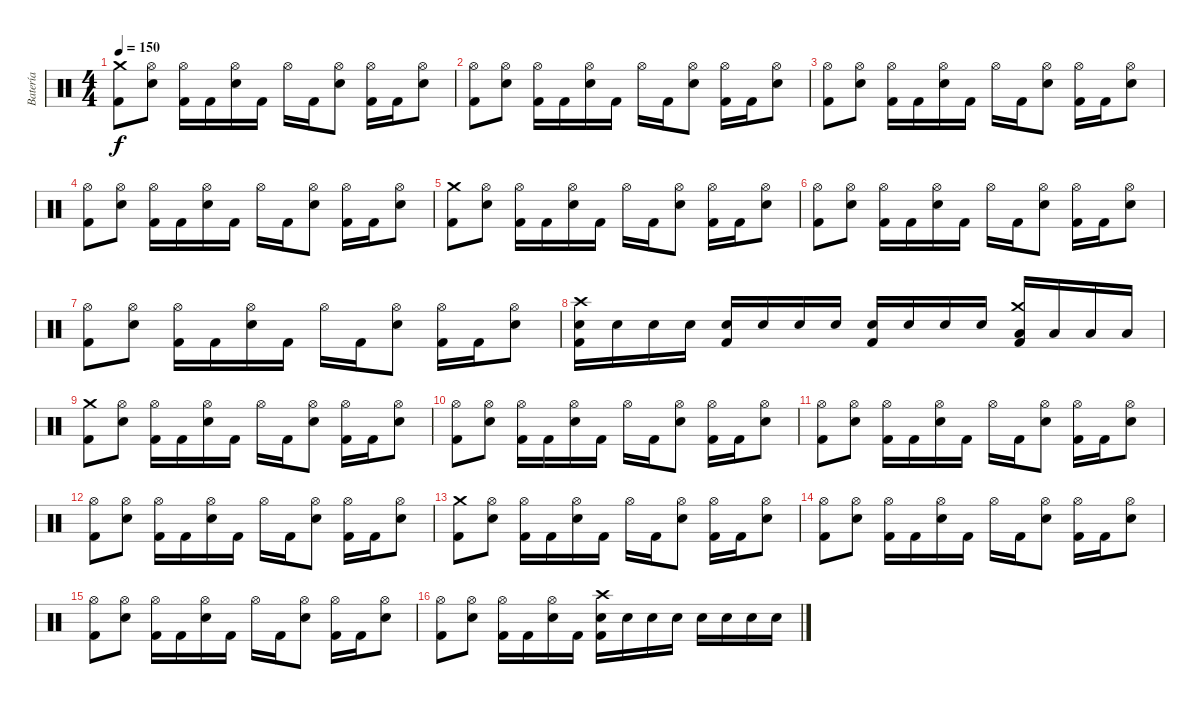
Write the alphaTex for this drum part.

\track ("Batería" "Batería") {instrument percussion}
\staff {score}
\articulation defaults
\ts (4 4)
\tempo 150
\clef neutral
\ks c
("Kick (hit) 2" "Crash medium (hit)").8{dy f} ("Snare (hit) 2" "Hi-Hat (open)").8 ("Kick (hit) 2" "Hi-Hat (open)").16 "Kick (hit) 2".16 ("Snare (hit) 2" "Hi-Hat (open)").16 "Kick (hit) 2".16 "Hi-Hat (open)".16 "Kick (hit) 2".16 ("Snare (hit) 2" "Hi-Hat (open)").8 ("Kick (hit) 2" "Hi-Hat (open)").16 "Kick (hit) 2".16 ("Snare (hit) 2" "Hi-Hat (open)").8 |
("Kick (hit) 2" "Hi-Hat (open)").8 ("Snare (hit) 2" "Hi-Hat (open)").8 ("Kick (hit) 2" "Hi-Hat (open)").16 "Kick (hit) 2".16 ("Snare (hit) 2" "Hi-Hat (open)").16 "Kick (hit) 2".16 "Hi-Hat (open)".16 "Kick (hit) 2".16 ("Snare (hit) 2" "Hi-Hat (open)").8 ("Kick (hit) 2" "Hi-Hat (open)").16 "Kick (hit) 2".16 ("Snare (hit) 2" "Hi-Hat (open)").8 |
("Kick (hit) 2" "Hi-Hat (open)").8 ("Snare (hit) 2" "Hi-Hat (open)").8 ("Kick (hit) 2" "Hi-Hat (open)").16 "Kick (hit) 2".16 ("Snare (hit) 2" "Hi-Hat (open)").16 "Kick (hit) 2".16 "Hi-Hat (open)".16 "Kick (hit) 2".16 ("Snare (hit) 2" "Hi-Hat (open)").8 ("Kick (hit) 2" "Hi-Hat (open)").16 "Kick (hit) 2".16 ("Snare (hit) 2" "Hi-Hat (open)").8 |
("Kick (hit) 2" "Hi-Hat (open)").8 ("Snare (hit) 2" "Hi-Hat (open)").8 ("Kick (hit) 2" "Hi-Hat (open)").16 "Kick (hit) 2".16 ("Snare (hit) 2" "Hi-Hat (open)").16 "Kick (hit) 2".16 "Hi-Hat (open)".16 "Kick (hit) 2".16 ("Snare (hit) 2" "Hi-Hat (open)").8 ("Kick (hit) 2" "Hi-Hat (open)").16 "Kick (hit) 2".16 ("Snare (hit) 2" "Hi-Hat (open)").8 |
("Kick (hit) 2" "Crash medium (hit)").8 ("Snare (hit) 2" "Hi-Hat (open)").8 ("Kick (hit) 2" "Hi-Hat (open)").16 "Kick (hit) 2".16 ("Snare (hit) 2" "Hi-Hat (open)").16 "Kick (hit) 2".16 "Hi-Hat (open)".16 "Kick (hit) 2".16 ("Snare (hit) 2" "Hi-Hat (open)").8 ("Kick (hit) 2" "Hi-Hat (open)").16 "Kick (hit) 2".16 ("Snare (hit) 2" "Hi-Hat (open)").8 |
("Kick (hit) 2" "Hi-Hat (open)").8 ("Snare (hit) 2" "Hi-Hat (open)").8 ("Kick (hit) 2" "Hi-Hat (open)").16 "Kick (hit) 2".16 ("Snare (hit) 2" "Hi-Hat (open)").16 "Kick (hit) 2".16 "Hi-Hat (open)".16 "Kick (hit) 2".16 ("Snare (hit) 2" "Hi-Hat (open)").8 ("Kick (hit) 2" "Hi-Hat (open)").16 "Kick (hit) 2".16 ("Snare (hit) 2" "Hi-Hat (open)").8 |
("Kick (hit) 2" "Hi-Hat (open)").8 ("Snare (hit) 2" "Hi-Hat (open)").8 ("Kick (hit) 2" "Hi-Hat (open)").16 "Kick (hit) 2".16 ("Snare (hit) 2" "Hi-Hat (open)").16 "Kick (hit) 2".16 "Hi-Hat (open)".16 "Kick (hit) 2".16 ("Snare (hit) 2" "Hi-Hat (open)").8 ("Kick (hit) 2" "Hi-Hat (open)").16 "Kick (hit) 2".16 ("Snare (hit) 2" "Hi-Hat (open)").8 |
("Kick (hit) 2" "Snare (hit) 2" "Crash high (hit)").16 "Snare (hit) 2".16 "Snare (hit) 2".16 "Snare (hit) 2".16 ("Kick (hit) 2" "Snare (hit) 2").16 "Snare (hit) 2".16 "Snare (hit) 2".16 "Snare (hit) 2".16 ("Kick (hit) 2" "Snare (hit) 2").16 "Snare (hit) 2".16 "Snare (hit) 2".16 "Snare (hit) 2".16 ("Kick (hit) 2" "Low Tom (hit)" "Crash medium (hit)").16 "Low Tom (hit)".16 "Low Tom (hit)".16 "Low Tom (hit)".16 |
("Kick (hit) 2" "Crash medium (hit)").8 ("Snare (hit) 2" "Hi-Hat (open)").8 ("Kick (hit) 2" "Hi-Hat (open)").16 "Kick (hit) 2".16 ("Snare (hit) 2" "Hi-Hat (open)").16 "Kick (hit) 2".16 "Hi-Hat (open)".16 "Kick (hit) 2".16 ("Snare (hit) 2" "Hi-Hat (open)").8 ("Kick (hit) 2" "Hi-Hat (open)").16 "Kick (hit) 2".16 ("Snare (hit) 2" "Hi-Hat (open)").8 |
("Kick (hit) 2" "Hi-Hat (open)").8 ("Snare (hit) 2" "Hi-Hat (open)").8 ("Kick (hit) 2" "Hi-Hat (open)").16 "Kick (hit) 2".16 ("Snare (hit) 2" "Hi-Hat (open)").16 "Kick (hit) 2".16 "Hi-Hat (open)".16 "Kick (hit) 2".16 ("Snare (hit) 2" "Hi-Hat (open)").8 ("Kick (hit) 2" "Hi-Hat (open)").16 "Kick (hit) 2".16 ("Snare (hit) 2" "Hi-Hat (open)").8 |
("Kick (hit) 2" "Hi-Hat (open)").8 ("Snare (hit) 2" "Hi-Hat (open)").8 ("Kick (hit) 2" "Hi-Hat (open)").16 "Kick (hit) 2".16 ("Snare (hit) 2" "Hi-Hat (open)").16 "Kick (hit) 2".16 "Hi-Hat (open)".16 "Kick (hit) 2".16 ("Snare (hit) 2" "Hi-Hat (open)").8 ("Kick (hit) 2" "Hi-Hat (open)").16 "Kick (hit) 2".16 ("Snare (hit) 2" "Hi-Hat (open)").8 |
("Kick (hit) 2" "Hi-Hat (open)").8 ("Snare (hit) 2" "Hi-Hat (open)").8 ("Kick (hit) 2" "Hi-Hat (open)").16 "Kick (hit) 2".16 ("Snare (hit) 2" "Hi-Hat (open)").16 "Kick (hit) 2".16 "Hi-Hat (open)".16 "Kick (hit) 2".16 ("Snare (hit) 2" "Hi-Hat (open)").8 ("Kick (hit) 2" "Hi-Hat (open)").16 "Kick (hit) 2".16 ("Snare (hit) 2" "Hi-Hat (open)").8 |
("Kick (hit) 2" "Crash medium (hit)").8 ("Snare (hit) 2" "Hi-Hat (open)").8 ("Kick (hit) 2" "Hi-Hat (open)").16 "Kick (hit) 2".16 ("Snare (hit) 2" "Hi-Hat (open)").16 "Kick (hit) 2".16 "Hi-Hat (open)".16 "Kick (hit) 2".16 ("Snare (hit) 2" "Hi-Hat (open)").8 ("Kick (hit) 2" "Hi-Hat (open)").16 "Kick (hit) 2".16 ("Snare (hit) 2" "Hi-Hat (open)").8 |
("Kick (hit) 2" "Hi-Hat (open)").8 ("Snare (hit) 2" "Hi-Hat (open)").8 ("Kick (hit) 2" "Hi-Hat (open)").16 "Kick (hit) 2".16 ("Snare (hit) 2" "Hi-Hat (open)").16 "Kick (hit) 2".16 "Hi-Hat (open)".16 "Kick (hit) 2".16 ("Snare (hit) 2" "Hi-Hat (open)").8 ("Kick (hit) 2" "Hi-Hat (open)").16 "Kick (hit) 2".16 ("Snare (hit) 2" "Hi-Hat (open)").8 |
("Kick (hit) 2" "Hi-Hat (open)").8 ("Snare (hit) 2" "Hi-Hat (open)").8 ("Kick (hit) 2" "Hi-Hat (open)").16 "Kick (hit) 2".16 ("Snare (hit) 2" "Hi-Hat (open)").16 "Kick (hit) 2".16 "Hi-Hat (open)".16 "Kick (hit) 2".16 ("Snare (hit) 2" "Hi-Hat (open)").8 ("Kick (hit) 2" "Hi-Hat (open)").16 "Kick (hit) 2".16 ("Snare (hit) 2" "Hi-Hat (open)").8 |
("Kick (hit) 2" "Hi-Hat (open)").8 ("Snare (hit) 2" "Hi-Hat (open)").8 ("Kick (hit) 2" "Hi-Hat (open)").16 "Kick (hit) 2".16 ("Snare (hit) 2" "Hi-Hat (open)").16 "Kick (hit) 2".16 ("Kick (hit) 2" "Snare (hit) 2" "Crash high (hit)").16 "Snare (hit) 2".16 "Snare (hit) 2".16 "Snare (hit) 2".16 "Snare (hit) 2".16 "Snare (hit) 2".16 "Snare (hit) 2".16 "Snare (hit) 2".16
